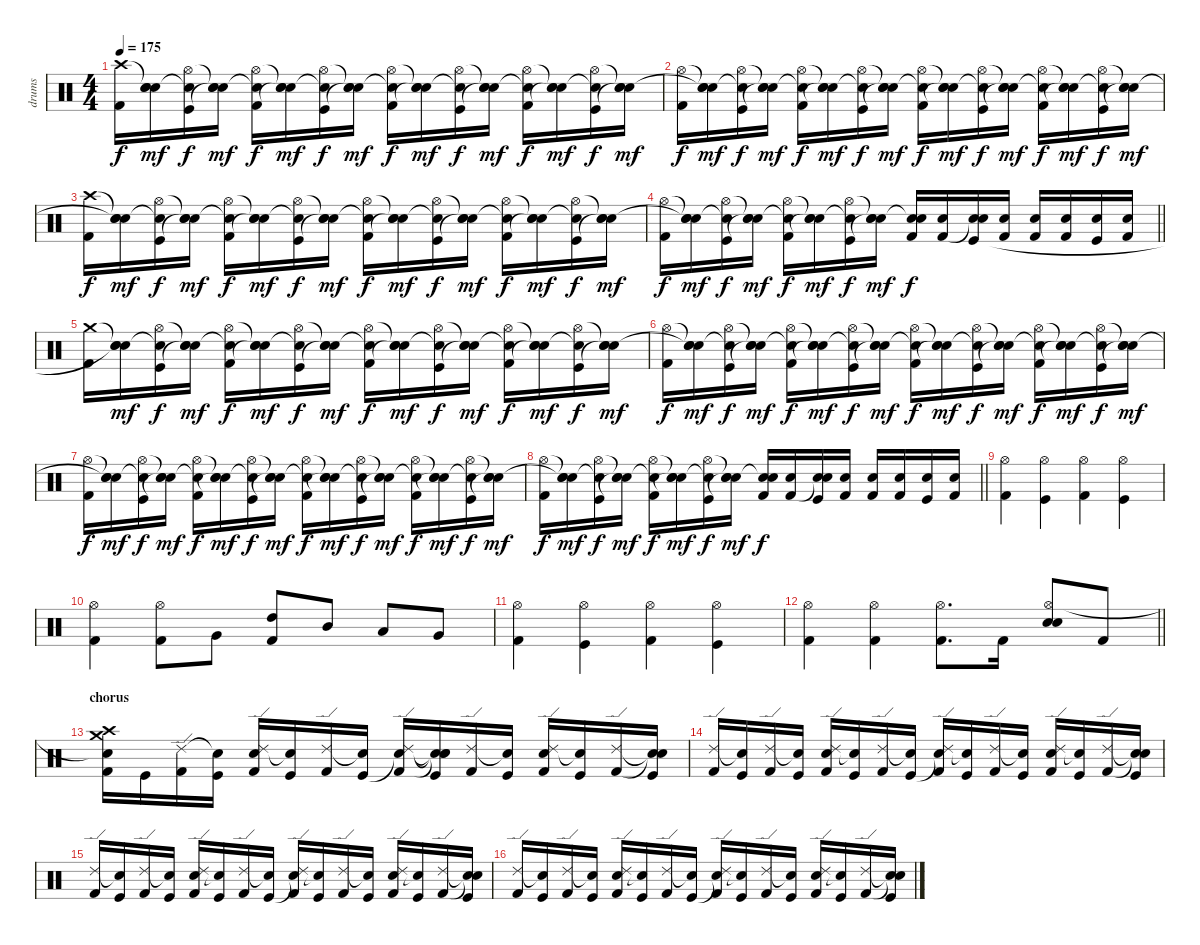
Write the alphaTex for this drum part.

\track ("drums" "drums") {instrument percussion}
\staff {score}
\articulation defaults
\ts (4 4)
\tempo 175
\clef neutral
\ks c
("Crash high (hit)" "Kick (hit) 2").16{dy f} ("Snare (hit)"{t} "Snare (hit) 2" "Snare (hit)"{t}).16{dy mf} ("Hi-Hat (open)" "Snare (hit)"{t} "Kick (hit)").16{dy f} ("Snare (hit)"{t} "Snare (hit) 2" "Snare (hit)"{t}).16{dy mf} ("Hi-Hat (open)" "Snare (hit)"{t} "Kick (hit) 2").16{dy f} ("Snare (hit)"{t} "Snare (hit) 2" "Snare (hit)"{t}).16{dy mf} ("Hi-Hat (open)" "Snare (hit)"{t} "Kick (hit)").16{dy f} ("Snare (hit)"{t} "Snare (hit) 2" "Snare (hit)"{t}).16{dy mf} ("Hi-Hat (open)" "Snare (hit)"{t} "Kick (hit) 2").16{dy f} ("Snare (hit)"{t} "Snare (hit) 2" "Snare (hit)"{t}).16{dy mf} ("Hi-Hat (open)" "Snare (hit)"{t} "Kick (hit)").16{dy f} ("Snare (hit)"{t} "Snare (hit) 2" "Snare (hit)"{t}).16{dy mf} ("Hi-Hat (open)" "Snare (hit)"{t} "Kick (hit) 2").16{dy f} ("Snare (hit)"{t} "Snare (hit) 2" "Snare (hit)"{t}).16{dy mf} ("Hi-Hat (open)" "Snare (hit)"{t} "Kick (hit)").16{dy f} ("Snare (hit)"{t} "Snare (hit) 2" "Snare (hit)"{t}).16{dy mf} |
("Hi-Hat (open)" "Kick (hit) 2").16{dy f} ("Snare (hit)"{t} "Snare (hit) 2" "Snare (hit)"{t}).16{dy mf} ("Hi-Hat (open)" "Snare (hit)"{t} "Kick (hit)").16{dy f} ("Snare (hit)"{t} "Snare (hit) 2" "Snare (hit)"{t}).16{dy mf} ("Hi-Hat (open)" "Snare (hit)"{t} "Kick (hit) 2").16{dy f} ("Snare (hit)"{t} "Snare (hit) 2" "Snare (hit)"{t}).16{dy mf} ("Hi-Hat (open)" "Snare (hit)"{t} "Kick (hit)").16{dy f} ("Snare (hit)"{t} "Snare (hit) 2" "Snare (hit)"{t}).16{dy mf} ("Hi-Hat (open)" "Snare (hit)"{t} "Kick (hit) 2").16{dy f} ("Snare (hit)"{t} "Snare (hit) 2" "Snare (hit)"{t}).16{dy mf} ("Hi-Hat (open)" "Snare (hit)"{t} "Kick (hit)").16{dy f} ("Snare (hit)"{t} "Snare (hit) 2" "Snare (hit)"{t}).16{dy mf} ("Hi-Hat (open)" "Snare (hit)"{t} "Kick (hit) 2").16{dy f} ("Snare (hit)"{t} "Snare (hit) 2" "Snare (hit)"{t}).16{dy mf} ("Hi-Hat (open)" "Snare (hit)"{t} "Kick (hit)").16{dy f} ("Snare (hit)"{t} "Snare (hit) 2" "Snare (hit)"{t}).16{dy mf} |
("Crash high (hit)" "Kick (hit) 2").16{dy f} ("Snare (hit)"{t} "Snare (hit) 2" "Snare (hit)"{t}).16{dy mf} ("Hi-Hat (open)" "Snare (hit)"{t} "Kick (hit)").16{dy f} ("Snare (hit)"{t} "Snare (hit) 2" "Snare (hit)"{t}).16{dy mf} ("Hi-Hat (open)" "Snare (hit)"{t} "Kick (hit) 2").16{dy f} ("Snare (hit)"{t} "Snare (hit) 2" "Snare (hit)"{t}).16{dy mf} ("Hi-Hat (open)" "Snare (hit)"{t} "Kick (hit)").16{dy f} ("Snare (hit)"{t} "Snare (hit) 2" "Snare (hit)"{t}).16{dy mf} ("Hi-Hat (open)" "Snare (hit)"{t} "Kick (hit) 2").16{dy f} ("Snare (hit)"{t} "Snare (hit) 2" "Snare (hit)"{t}).16{dy mf} ("Hi-Hat (open)" "Snare (hit)"{t} "Kick (hit)").16{dy f} ("Snare (hit)"{t} "Snare (hit) 2" "Snare (hit)"{t}).16{dy mf} ("Hi-Hat (open)" "Snare (hit)"{t} "Kick (hit) 2").16{dy f} ("Snare (hit)"{t} "Snare (hit) 2" "Snare (hit)"{t}).16{dy mf} ("Hi-Hat (open)" "Snare (hit)"{t} "Kick (hit)").16{dy f} ("Snare (hit)"{t} "Snare (hit) 2" "Snare (hit)"{t}).16{dy mf} |
\barLineRight lightlight
("Hi-Hat (open)" "Kick (hit) 2").16{dy f} ("Snare (hit)"{t} "Snare (hit) 2" "Snare (hit)"{t}).16{dy mf} ("Hi-Hat (open)" "Snare (hit)"{t} "Kick (hit)").16{dy f} ("Snare (hit)"{t} "Snare (hit) 2" "Snare (hit)"{t}).16{dy mf} ("Hi-Hat (open)" "Snare (hit)"{t} "Kick (hit) 2").16{dy f} ("Snare (hit)"{t} "Snare (hit) 2" "Snare (hit)"{t}).16{dy mf} ("Hi-Hat (open)" "Snare (hit)"{t} "Kick (hit)").16{dy f} ("Snare (hit)"{t} "Snare (hit) 2" "Snare (hit)"{t}).16{dy mf} ("Snare (hit) 2" "Snare (hit)"{t} "Kick (hit) 2").16{dy f} ("Snare (hit) 2" "Kick (hit) 2").16 ("Snare (hit) 2" "Snare (hit)"{t} "Kick (hit)").16 ("Snare (hit) 2" "Kick (hit) 2").16 ("Snare (hit) 2" "Kick (hit) 2").16 ("Snare (hit) 2" "Kick (hit) 2").16 ("Snare (hit) 2" "Kick (hit)").16 ("Snare (hit) 2" "Kick (hit) 2").16 |
("Crash medium (hit)" "Kick (hit) 2").16 ("Snare (hit)"{t} "Snare (hit) 2" "Snare (hit)"{t}).16{dy mf} ("Hi-Hat (open)" "Snare (hit)"{t} "Kick (hit)").16{dy f} ("Snare (hit)"{t} "Snare (hit) 2" "Snare (hit)"{t}).16{dy mf} ("Hi-Hat (open)" "Snare (hit)"{t} "Kick (hit) 2").16{dy f} ("Snare (hit)"{t} "Snare (hit) 2" "Snare (hit)"{t}).16{dy mf} ("Hi-Hat (open)" "Snare (hit)"{t} "Kick (hit)").16{dy f} ("Snare (hit)"{t} "Snare (hit) 2" "Snare (hit)"{t}).16{dy mf} ("Hi-Hat (open)" "Snare (hit)"{t} "Kick (hit) 2").16{dy f} ("Snare (hit)"{t} "Snare (hit) 2" "Snare (hit)"{t}).16{dy mf} ("Hi-Hat (open)" "Snare (hit)"{t} "Kick (hit)").16{dy f} ("Snare (hit)"{t} "Snare (hit) 2" "Snare (hit)"{t}).16{dy mf} ("Hi-Hat (open)" "Snare (hit)"{t} "Kick (hit) 2").16{dy f} ("Snare (hit)"{t} "Snare (hit) 2" "Snare (hit)"{t}).16{dy mf} ("Hi-Hat (open)" "Snare (hit)"{t} "Kick (hit)").16{dy f} ("Snare (hit)"{t} "Snare (hit) 2" "Snare (hit)"{t}).16{dy mf} |
("Hi-Hat (open)" "Kick (hit) 2").16{dy f} ("Snare (hit)"{t} "Snare (hit) 2" "Snare (hit)"{t}).16{dy mf} ("Hi-Hat (open)" "Snare (hit)"{t} "Kick (hit)").16{dy f} ("Snare (hit)"{t} "Snare (hit) 2" "Snare (hit)"{t}).16{dy mf} ("Hi-Hat (open)" "Snare (hit)"{t} "Kick (hit) 2").16{dy f} ("Snare (hit)"{t} "Snare (hit) 2" "Snare (hit)"{t}).16{dy mf} ("Hi-Hat (open)" "Snare (hit)"{t} "Kick (hit)").16{dy f} ("Snare (hit)"{t} "Snare (hit) 2" "Snare (hit)"{t}).16{dy mf} ("Hi-Hat (open)" "Snare (hit)"{t} "Kick (hit) 2").16{dy f} ("Snare (hit)"{t} "Snare (hit) 2" "Snare (hit)"{t}).16{dy mf} ("Hi-Hat (open)" "Snare (hit)"{t} "Kick (hit)").16{dy f} ("Snare (hit)"{t} "Snare (hit) 2" "Snare (hit)"{t}).16{dy mf} ("Hi-Hat (open)" "Snare (hit)"{t} "Kick (hit) 2").16{dy f} ("Snare (hit)"{t} "Snare (hit) 2" "Snare (hit)"{t}).16{dy mf} ("Hi-Hat (open)" "Snare (hit)"{t} "Kick (hit)").16{dy f} ("Snare (hit)"{t} "Snare (hit) 2" "Snare (hit)"{t}).16{dy mf} |
("Hi-Hat (open)" "Kick (hit) 2").16{dy f} ("Snare (hit)"{t} "Snare (hit) 2" "Snare (hit)"{t}).16{dy mf} ("Hi-Hat (open)" "Snare (hit)"{t} "Kick (hit)").16{dy f} ("Snare (hit)"{t} "Snare (hit) 2" "Snare (hit)"{t}).16{dy mf} ("Hi-Hat (open)" "Snare (hit)"{t} "Kick (hit) 2").16{dy f} ("Snare (hit)"{t} "Snare (hit) 2" "Snare (hit)"{t}).16{dy mf} ("Hi-Hat (open)" "Snare (hit)"{t} "Kick (hit)").16{dy f} ("Snare (hit)"{t} "Snare (hit) 2" "Snare (hit)"{t}).16{dy mf} ("Hi-Hat (open)" "Snare (hit)"{t} "Kick (hit) 2").16{dy f} ("Snare (hit)"{t} "Snare (hit) 2" "Snare (hit)"{t}).16{dy mf} ("Hi-Hat (open)" "Snare (hit)"{t} "Kick (hit)").16{dy f} ("Snare (hit)"{t} "Snare (hit) 2" "Snare (hit)"{t}).16{dy mf} ("Hi-Hat (open)" "Snare (hit)"{t} "Kick (hit) 2").16{dy f} ("Snare (hit)"{t} "Snare (hit) 2" "Snare (hit)"{t}).16{dy mf} ("Hi-Hat (open)" "Snare (hit)"{t} "Kick (hit)").16{dy f} ("Snare (hit)"{t} "Snare (hit) 2" "Snare (hit)"{t}).16{dy mf} |
\barLineRight lightlight
("Hi-Hat (open)" "Kick (hit) 2").16{dy f} ("Snare (hit)"{t} "Snare (hit) 2" "Snare (hit)"{t}).16{dy mf} ("Hi-Hat (open)" "Snare (hit)"{t} "Kick (hit)").16{dy f} ("Snare (hit)"{t} "Snare (hit) 2" "Snare (hit)"{t}).16{dy mf} ("Hi-Hat (open)" "Snare (hit)"{t} "Kick (hit) 2").16{dy f} ("Snare (hit)"{t} "Snare (hit) 2" "Snare (hit)"{t}).16{dy mf} ("Hi-Hat (open)" "Snare (hit)"{t} "Kick (hit)").16{dy f} ("Snare (hit)"{t} "Snare (hit) 2" "Snare (hit)"{t}).16{dy mf} ("Snare (hit) 2" "Snare (hit)"{t} "Kick (hit) 2").16{dy f} ("Snare (hit) 2" "Kick (hit) 2").16 ("Snare (hit) 2" "Snare (hit)"{t} "Kick (hit)").16 ("Snare (hit) 2" "Kick (hit) 2").16 ("Snare (hit) 2" "Kick (hit) 2").16 ("Snare (hit) 2" "Kick (hit) 2").16 ("Snare (hit) 2" "Kick (hit)").16 ("Snare (hit) 2" "Kick (hit) 2").16 |
\section ("" "")
("Kick (hit) 2" "Hi-Hat (open)").4 ("Kick (hit)" "Hi-Hat (open)").4 ("Kick (hit) 2" "Hi-Hat (open)").4 ("Kick (hit)" "Hi-Hat (open)").4 |
("Kick (hit) 2" "Hi-Hat (open)").4 ("Kick (hit) 2" "Hi-Hat (open)").8 "Very Low Tom (hit)".8 ("Kick (hit) 2" "High Tom (hit)").8 "Mid Tom (hit)".8 "Low Tom (hit)".8 "Very Low Tom (hit)".8 |
("Kick (hit) 2" "Hi-Hat (open)").4 ("Kick (hit)" "Hi-Hat (open)").4 ("Kick (hit) 2" "Hi-Hat (open)").4 ("Kick (hit)" "Hi-Hat (open)").4 |
\barLineRight lightlight
("Hi-Hat (open)" "Kick (hit) 2").4 ("Hi-Hat (open)" "Kick (hit) 2").4 ("Hi-Hat (open)" "Kick (hit) 2").8{d} "Kick (hit) 2".16 ("Electric Snare (hit)" "Snare (hit) 2" "Hi-Hat (open)").8 "Kick (hit) 2".8 |
\section ("" "chorus")
("Crash high (hit)" "Crash medium (hit)" "Snare (hit)"{t} "Kick (hit) 2").16 "Kick (hit)".16 ("Ride (edge) 2" "Kick (hit) 2").16 ("Snare (hit)"{t} "Kick (hit)").16 ("Ride (edge) 2" "Snare (hit) 2" "Kick (hit) 2").16 ("Snare (hit)"{t} "Kick (hit)").16 ("Ride (edge) 2" "Kick (hit) 2").16 ("Snare (hit)"{t} "Kick (hit)").16 ("Ride (edge) 2" "Snare (hit)"{t} "Kick (hit) 2").16 ("Snare (hit)"{t} "Snare (hit)"{t} "Snare (hit)"{t} "Kick (hit)").16 ("Ride (edge) 2" "Kick (hit) 2").16 ("Snare (hit)"{t} "Kick (hit)").16 ("Ride (edge) 2" "Snare (hit) 2" "Kick (hit) 2").16 ("Snare (hit)"{t} "Kick (hit)").16 ("Ride (edge) 2" "Kick (hit) 2").16 ("Snare (hit)"{t} "Snare (hit)"{t} "Kick (hit)").16 |
("Ride (edge) 2" "Kick (hit) 2").16 ("Snare (hit)"{t} "Kick (hit)").16 ("Ride (edge) 2" "Kick (hit) 2").16 ("Snare (hit)"{t} "Kick (hit)").16 ("Ride (edge) 2" "Snare (hit) 2" "Kick (hit) 2").16 ("Snare (hit)"{t} "Kick (hit)").16 ("Ride (edge) 2" "Kick (hit) 2").16 ("Snare (hit)"{t} "Kick (hit)").16 ("Ride (edge) 2" "Snare (hit)"{t} "Kick (hit) 2").16 ("Snare (hit)"{t} "Kick (hit)").16 ("Ride (edge) 2" "Kick (hit) 2").16 ("Snare (hit)"{t} "Kick (hit)").16 ("Ride (edge) 2" "Snare (hit) 2" "Kick (hit) 2").16 ("Snare (hit)"{t} "Kick (hit)").16 ("Ride (edge) 2" "Kick (hit) 2").16 ("Snare (hit)"{t} "Snare (hit)"{t} "Kick (hit)").16 |
("Ride (edge) 2" "Kick (hit) 2").16 ("Snare (hit)"{t} "Kick (hit)").16 ("Ride (edge) 2" "Kick (hit) 2").16 ("Snare (hit)"{t} "Kick (hit)").16 ("Ride (edge) 2" "Snare (hit) 2" "Kick (hit) 2").16 ("Snare (hit)"{t} "Kick (hit)").16 ("Ride (edge) 2" "Kick (hit) 2").16 ("Snare (hit)"{t} "Kick (hit)").16 ("Ride (edge) 2" "Snare (hit)"{t} "Kick (hit) 2").16 ("Snare (hit)"{t} "Kick (hit)").16 ("Ride (edge) 2" "Kick (hit) 2").16 ("Snare (hit)"{t} "Kick (hit)").16 ("Ride (edge) 2" "Snare (hit) 2" "Kick (hit) 2").16 ("Snare (hit)"{t} "Kick (hit)").16 ("Ride (edge) 2" "Kick (hit) 2").16 ("Snare (hit)"{t} "Snare (hit)"{t} "Kick (hit)").16 |
("Ride (edge) 2" "Kick (hit) 2").16 ("Snare (hit)"{t} "Kick (hit)").16 ("Ride (edge) 2" "Kick (hit) 2").16 ("Snare (hit)"{t} "Kick (hit)").16 ("Ride (edge) 2" "Snare (hit) 2" "Kick (hit) 2").16 ("Snare (hit)"{t} "Kick (hit)").16 ("Ride (edge) 2" "Kick (hit) 2").16 ("Snare (hit)"{t} "Kick (hit)").16 ("Ride (edge) 2" "Snare (hit)"{t} "Kick (hit) 2").16 ("Snare (hit)"{t} "Kick (hit)").16 ("Ride (edge) 2" "Kick (hit) 2").16 ("Snare (hit)"{t} "Kick (hit)").16 ("Ride (edge) 2" "Snare (hit) 2" "Kick (hit) 2").16 ("Snare (hit)"{t} "Kick (hit)").16 ("Ride (edge) 2" "Kick (hit) 2").16 ("Snare (hit)"{t} "Snare (hit)"{t} "Kick (hit)").16
